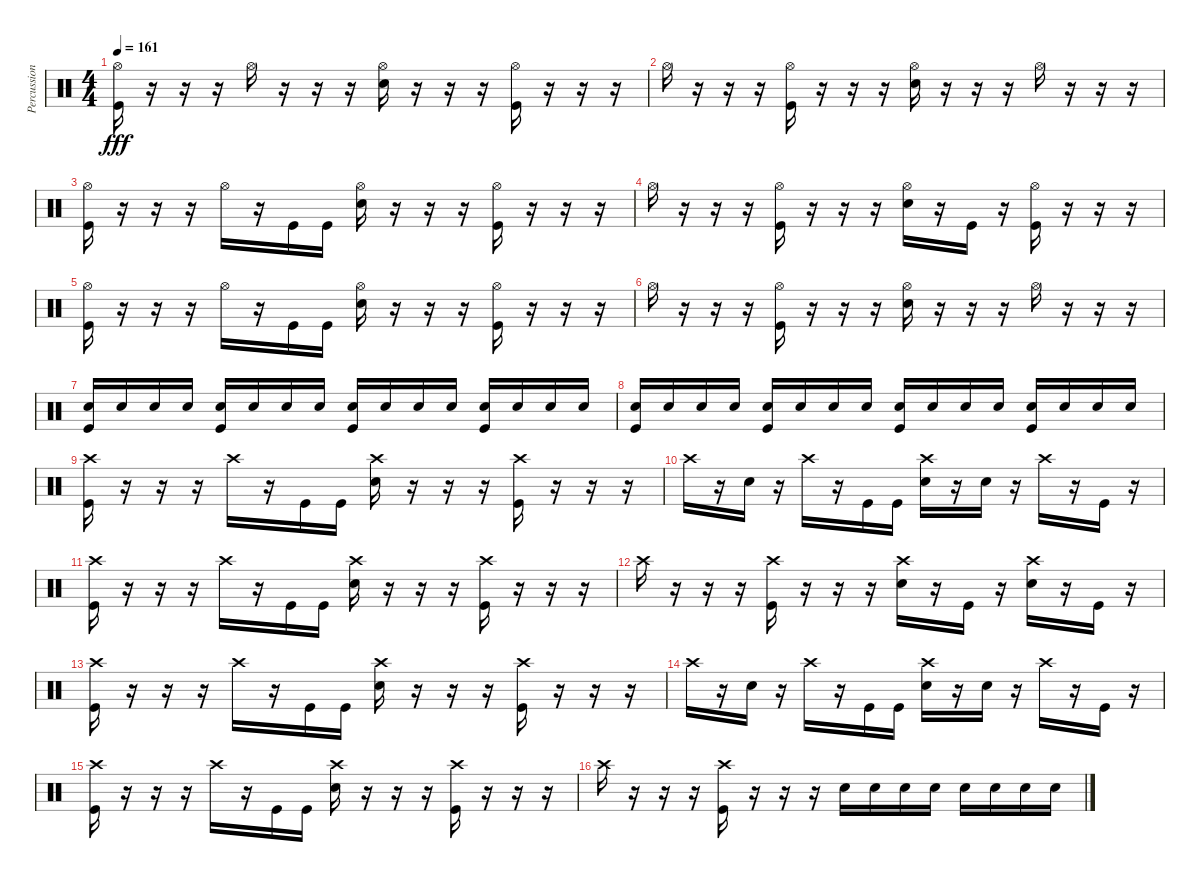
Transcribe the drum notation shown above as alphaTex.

\track ("Percussion" "Percussion") {instrument percussion}
\staff {score}
\articulation defaults
\ts (4 4)
\tempo 161
\clef neutral
\ks c
("Hi-Hat (open)" "Kick (hit)").16{dy fff} r.16 r.16 r.16 "Hi-Hat (open)".16 r.16 r.16 r.16 ("Hi-Hat (open)" "Electric Snare (hit)").16 r.16 r.16 r.16 ("Hi-Hat (open)" "Kick (hit)").16 r.16 r.16 r.16 |
"Hi-Hat (open)".16 r.16 r.16 r.16 ("Hi-Hat (open)" "Kick (hit)").16 r.16 r.16 r.16 ("Hi-Hat (open)" "Electric Snare (hit)").16 r.16 r.16 r.16 "Hi-Hat (open)".16 r.16 r.16 r.16 |
("Hi-Hat (open)" "Kick (hit)").16 r.16 r.16 r.16 "Hi-Hat (open)".16 r.16 "Kick (hit)".16 "Kick (hit)".16 ("Hi-Hat (open)" "Electric Snare (hit)").16 r.16 r.16 r.16 ("Hi-Hat (open)" "Kick (hit)").16 r.16 r.16 r.16 |
"Hi-Hat (open)".16 r.16 r.16 r.16 ("Hi-Hat (open)" "Kick (hit)").16 r.16 r.16 r.16 ("Hi-Hat (open)" "Electric Snare (hit)").16 r.16 "Kick (hit)".16 r.16 ("Hi-Hat (open)" "Kick (hit)").16 r.16 r.16 r.16 |
("Hi-Hat (open)" "Kick (hit)").16 r.16 r.16 r.16 "Hi-Hat (open)".16 r.16 "Kick (hit)".16 "Kick (hit)".16 ("Hi-Hat (open)" "Electric Snare (hit)").16 r.16 r.16 r.16 ("Hi-Hat (open)" "Kick (hit)").16 r.16 r.16 r.16 |
"Hi-Hat (open)".16 r.16 r.16 r.16 ("Hi-Hat (open)" "Kick (hit)").16 r.16 r.16 r.16 ("Hi-Hat (open)" "Electric Snare (hit)").16 r.16 r.16 r.16 "Hi-Hat (open)".16 r.16 r.16 r.16 |
("Electric Snare (hit)" "Kick (hit)").16 "Electric Snare (hit)".16 "Electric Snare (hit)".16 "Electric Snare (hit)".16 ("Electric Snare (hit)" "Kick (hit)").16 "Electric Snare (hit)".16 "Electric Snare (hit)".16 "Electric Snare (hit)".16 ("Electric Snare (hit)" "Kick (hit)").16 "Electric Snare (hit)".16 "Electric Snare (hit)".16 "Electric Snare (hit)".16 ("Electric Snare (hit)" "Kick (hit)").16 "Electric Snare (hit)".16 "Electric Snare (hit)".16 "Electric Snare (hit)".16 |
("Electric Snare (hit)" "Kick (hit)").16 "Electric Snare (hit)".16 "Electric Snare (hit)".16 "Electric Snare (hit)".16 ("Electric Snare (hit)" "Kick (hit)").16 "Electric Snare (hit)".16 "Electric Snare (hit)".16 "Electric Snare (hit)".16 ("Electric Snare (hit)" "Kick (hit)").16 "Electric Snare (hit)".16 "Electric Snare (hit)".16 "Electric Snare (hit)".16 ("Electric Snare (hit)" "Kick (hit)").16 "Electric Snare (hit)".16 "Electric Snare (hit)".16 "Electric Snare (hit)".16 |
("Crash high (hit)" "Kick (hit)").16 r.16 r.16 r.16 "Crash high (hit)".16 r.16 "Kick (hit)".16 "Kick (hit)".16 ("Crash high (hit)" "Electric Snare (hit)").16 r.16 r.16 r.16 ("Crash high (hit)" "Kick (hit)").16 r.16 r.16 r.16 |
"Crash high (hit)".16 r.16 "Electric Snare (hit)".16 r.16 "Crash high (hit)".16 r.16 "Kick (hit)".16 "Kick (hit)".16 ("Crash high (hit)" "Electric Snare (hit)").16 r.16 "Electric Snare (hit)".16 r.16 "Crash high (hit)".16 r.16 "Kick (hit)".16 r.16 |
("Crash high (hit)" "Kick (hit)").16 r.16 r.16 r.16 "Crash high (hit)".16 r.16 "Kick (hit)".16 "Kick (hit)".16 ("Crash high (hit)" "Electric Snare (hit)").16 r.16 r.16 r.16 ("Crash high (hit)" "Kick (hit)").16 r.16 r.16 r.16 |
"Crash high (hit)".16 r.16 r.16 r.16 ("Crash high (hit)" "Kick (hit)").16 r.16 r.16 r.16 ("Crash high (hit)" "Electric Snare (hit)").16 r.16 "Kick (hit)".16 r.16 ("Crash high (hit)" "Electric Snare (hit)").16 r.16 "Kick (hit)".16 r.16 |
("Crash high (hit)" "Kick (hit)").16 r.16 r.16 r.16 "Crash high (hit)".16 r.16 "Kick (hit)".16 "Kick (hit)".16 ("Crash high (hit)" "Electric Snare (hit)").16 r.16 r.16 r.16 ("Crash high (hit)" "Kick (hit)").16 r.16 r.16 r.16 |
"Crash high (hit)".16 r.16 "Electric Snare (hit)".16 r.16 "Crash high (hit)".16 r.16 "Kick (hit)".16 "Kick (hit)".16 ("Crash high (hit)" "Electric Snare (hit)").16 r.16 "Electric Snare (hit)".16 r.16 "Crash high (hit)".16 r.16 "Kick (hit)".16 r.16 |
("Crash high (hit)" "Kick (hit)").16 r.16 r.16 r.16 "Crash high (hit)".16 r.16 "Kick (hit)".16 "Kick (hit)".16 ("Crash high (hit)" "Electric Snare (hit)").16 r.16 r.16 r.16 ("Crash high (hit)" "Kick (hit)").16 r.16 r.16 r.16 |
"Crash high (hit)".16 r.16 r.16 r.16 ("Crash high (hit)" "Kick (hit)").16 r.16 r.16 r.16 "Electric Snare (hit)".16 "Electric Snare (hit)".16 "Electric Snare (hit)".16 "Electric Snare (hit)".16 "Electric Snare (hit)".16 "Electric Snare (hit)".16 "Electric Snare (hit)".16 "Electric Snare (hit)".16
